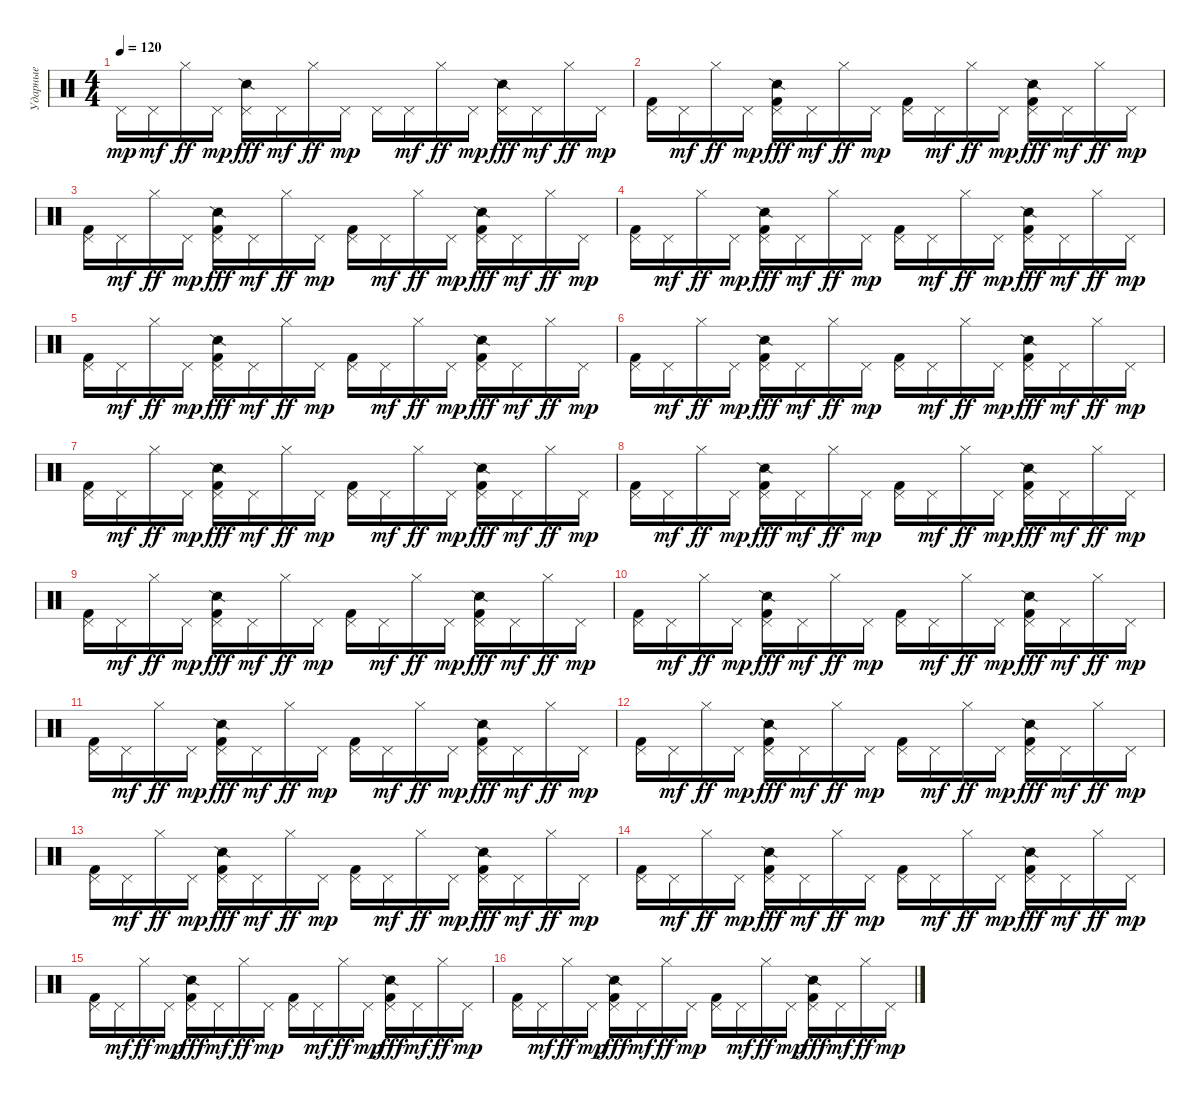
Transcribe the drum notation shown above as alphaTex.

\track ("Ударные" "Ударные") {instrument percussion}
\staff {score}
\articulation defaults
\ts (4 4)
\tempo 120
\clef neutral
\ks c "Pedal Hi-Hat (hit)".16{dy mp} "Pedal Hi-Hat (hit)".16{dy mf} "Hi-Hat (closed)".16{dy ff} "Pedal Hi-Hat (hit)".16{dy mp}
("Pedal Hi-Hat (hit)" "Snare (side stick) 2").16{dy fff} "Pedal Hi-Hat (hit)".16{dy mf} "Hi-Hat (closed)".16{dy ff} "Pedal Hi-Hat (hit)".16{dy mp} "Pedal Hi-Hat (hit)".16 "Pedal Hi-Hat (hit)".16{dy mf} "Hi-Hat (closed)".16{dy ff} "Pedal Hi-Hat (hit)".16{dy mp} ("Pedal Hi-Hat (hit)" "Snare (side stick) 2").16{dy fff} "Pedal Hi-Hat (hit)".16{dy mf} "Hi-Hat (closed)".16{dy ff} "Pedal Hi-Hat (hit)".16{dy mp} |
("Pedal Hi-Hat (hit)" "Kick (hit) 2").16 "Pedal Hi-Hat (hit)".16{dy mf} "Hi-Hat (closed)".16{dy ff} "Pedal Hi-Hat (hit)".16{dy mp} ("Pedal Hi-Hat (hit)" "Snare (side stick) 2" "Kick (hit) 2").16{dy fff} "Pedal Hi-Hat (hit)".16{dy mf} "Hi-Hat (closed)".16{dy ff} "Pedal Hi-Hat (hit)".16{dy mp} ("Pedal Hi-Hat (hit)" "Kick (hit) 2").16 "Pedal Hi-Hat (hit)".16{dy mf} "Hi-Hat (closed)".16{dy ff} "Pedal Hi-Hat (hit)".16{dy mp} ("Pedal Hi-Hat (hit)" "Snare (side stick) 2" "Kick (hit) 2").16{dy fff} "Pedal Hi-Hat (hit)".16{dy mf} "Hi-Hat (closed)".16{dy ff} "Pedal Hi-Hat (hit)".16{dy mp} |
("Pedal Hi-Hat (hit)" "Kick (hit) 2").16 "Pedal Hi-Hat (hit)".16{dy mf} "Hi-Hat (closed)".16{dy ff} "Pedal Hi-Hat (hit)".16{dy mp} ("Pedal Hi-Hat (hit)" "Snare (side stick) 2" "Kick (hit) 2").16{dy fff} "Pedal Hi-Hat (hit)".16{dy mf} "Hi-Hat (closed)".16{dy ff} "Pedal Hi-Hat (hit)".16{dy mp} ("Pedal Hi-Hat (hit)" "Kick (hit) 2").16 "Pedal Hi-Hat (hit)".16{dy mf} "Hi-Hat (closed)".16{dy ff} "Pedal Hi-Hat (hit)".16{dy mp} ("Pedal Hi-Hat (hit)" "Snare (side stick) 2" "Kick (hit) 2").16{dy fff} "Pedal Hi-Hat (hit)".16{dy mf} "Hi-Hat (closed)".16{dy ff} "Pedal Hi-Hat (hit)".16{dy mp} |
("Pedal Hi-Hat (hit)" "Kick (hit) 2").16 "Pedal Hi-Hat (hit)".16{dy mf} "Hi-Hat (closed)".16{dy ff} "Pedal Hi-Hat (hit)".16{dy mp} ("Pedal Hi-Hat (hit)" "Snare (side stick) 2" "Kick (hit) 2").16{dy fff} "Pedal Hi-Hat (hit)".16{dy mf} "Hi-Hat (closed)".16{dy ff} "Pedal Hi-Hat (hit)".16{dy mp} ("Pedal Hi-Hat (hit)" "Kick (hit) 2").16 "Pedal Hi-Hat (hit)".16{dy mf} "Hi-Hat (closed)".16{dy ff} "Pedal Hi-Hat (hit)".16{dy mp} ("Pedal Hi-Hat (hit)" "Snare (side stick) 2" "Kick (hit) 2").16{dy fff} "Pedal Hi-Hat (hit)".16{dy mf} "Hi-Hat (closed)".16{dy ff} "Pedal Hi-Hat (hit)".16{dy mp} |
("Pedal Hi-Hat (hit)" "Kick (hit) 2").16 "Pedal Hi-Hat (hit)".16{dy mf} "Hi-Hat (closed)".16{dy ff} "Pedal Hi-Hat (hit)".16{dy mp} ("Pedal Hi-Hat (hit)" "Snare (side stick) 2" "Kick (hit) 2").16{dy fff} "Pedal Hi-Hat (hit)".16{dy mf} "Hi-Hat (closed)".16{dy ff} "Pedal Hi-Hat (hit)".16{dy mp} ("Pedal Hi-Hat (hit)" "Kick (hit) 2").16 "Pedal Hi-Hat (hit)".16{dy mf} "Hi-Hat (closed)".16{dy ff} "Pedal Hi-Hat (hit)".16{dy mp} ("Pedal Hi-Hat (hit)" "Snare (side stick) 2" "Kick (hit) 2").16{dy fff} "Pedal Hi-Hat (hit)".16{dy mf} "Hi-Hat (closed)".16{dy ff} "Pedal Hi-Hat (hit)".16{dy mp} |
("Pedal Hi-Hat (hit)" "Kick (hit) 2").16 "Pedal Hi-Hat (hit)".16{dy mf} "Hi-Hat (closed)".16{dy ff} "Pedal Hi-Hat (hit)".16{dy mp} ("Pedal Hi-Hat (hit)" "Snare (side stick) 2" "Kick (hit) 2").16{dy fff} "Pedal Hi-Hat (hit)".16{dy mf} "Hi-Hat (closed)".16{dy ff} "Pedal Hi-Hat (hit)".16{dy mp} ("Pedal Hi-Hat (hit)" "Kick (hit) 2").16 "Pedal Hi-Hat (hit)".16{dy mf} "Hi-Hat (closed)".16{dy ff} "Pedal Hi-Hat (hit)".16{dy mp} ("Pedal Hi-Hat (hit)" "Snare (side stick) 2" "Kick (hit) 2").16{dy fff} "Pedal Hi-Hat (hit)".16{dy mf} "Hi-Hat (closed)".16{dy ff} "Pedal Hi-Hat (hit)".16{dy mp} |
("Pedal Hi-Hat (hit)" "Kick (hit) 2").16 "Pedal Hi-Hat (hit)".16{dy mf} "Hi-Hat (closed)".16{dy ff} "Pedal Hi-Hat (hit)".16{dy mp} ("Pedal Hi-Hat (hit)" "Snare (side stick) 2" "Kick (hit) 2").16{dy fff} "Pedal Hi-Hat (hit)".16{dy mf} "Hi-Hat (closed)".16{dy ff} "Pedal Hi-Hat (hit)".16{dy mp} ("Pedal Hi-Hat (hit)" "Kick (hit) 2").16 "Pedal Hi-Hat (hit)".16{dy mf} "Hi-Hat (closed)".16{dy ff} "Pedal Hi-Hat (hit)".16{dy mp} ("Pedal Hi-Hat (hit)" "Snare (side stick) 2" "Kick (hit) 2").16{dy fff} "Pedal Hi-Hat (hit)".16{dy mf} "Hi-Hat (closed)".16{dy ff} "Pedal Hi-Hat (hit)".16{dy mp} |
("Pedal Hi-Hat (hit)" "Kick (hit) 2").16 "Pedal Hi-Hat (hit)".16{dy mf} "Hi-Hat (closed)".16{dy ff} "Pedal Hi-Hat (hit)".16{dy mp} ("Pedal Hi-Hat (hit)" "Snare (side stick) 2" "Kick (hit) 2").16{dy fff} "Pedal Hi-Hat (hit)".16{dy mf} "Hi-Hat (closed)".16{dy ff} "Pedal Hi-Hat (hit)".16{dy mp} ("Pedal Hi-Hat (hit)" "Kick (hit) 2").16 "Pedal Hi-Hat (hit)".16{dy mf} "Hi-Hat (closed)".16{dy ff} "Pedal Hi-Hat (hit)".16{dy mp} ("Pedal Hi-Hat (hit)" "Snare (side stick) 2" "Kick (hit) 2").16{dy fff} "Pedal Hi-Hat (hit)".16{dy mf} "Hi-Hat (closed)".16{dy ff} "Pedal Hi-Hat (hit)".16{dy mp} |
("Pedal Hi-Hat (hit)" "Kick (hit) 2").16 "Pedal Hi-Hat (hit)".16{dy mf} "Hi-Hat (closed)".16{dy ff} "Pedal Hi-Hat (hit)".16{dy mp} ("Pedal Hi-Hat (hit)" "Snare (side stick) 2" "Kick (hit) 2").16{dy fff} "Pedal Hi-Hat (hit)".16{dy mf} "Hi-Hat (closed)".16{dy ff} "Pedal Hi-Hat (hit)".16{dy mp} ("Pedal Hi-Hat (hit)" "Kick (hit) 2").16 "Pedal Hi-Hat (hit)".16{dy mf} "Hi-Hat (closed)".16{dy ff} "Pedal Hi-Hat (hit)".16{dy mp} ("Pedal Hi-Hat (hit)" "Snare (side stick) 2" "Kick (hit) 2").16{dy fff} "Pedal Hi-Hat (hit)".16{dy mf} "Hi-Hat (closed)".16{dy ff} "Pedal Hi-Hat (hit)".16{dy mp} |
("Pedal Hi-Hat (hit)" "Kick (hit) 2").16 "Pedal Hi-Hat (hit)".16{dy mf} "Hi-Hat (closed)".16{dy ff} "Pedal Hi-Hat (hit)".16{dy mp} ("Pedal Hi-Hat (hit)" "Snare (side stick) 2" "Kick (hit) 2").16{dy fff} "Pedal Hi-Hat (hit)".16{dy mf} "Hi-Hat (closed)".16{dy ff} "Pedal Hi-Hat (hit)".16{dy mp} ("Pedal Hi-Hat (hit)" "Kick (hit) 2").16 "Pedal Hi-Hat (hit)".16{dy mf} "Hi-Hat (closed)".16{dy ff} "Pedal Hi-Hat (hit)".16{dy mp} ("Pedal Hi-Hat (hit)" "Snare (side stick) 2" "Kick (hit) 2").16{dy fff} "Pedal Hi-Hat (hit)".16{dy mf} "Hi-Hat (closed)".16{dy ff} "Pedal Hi-Hat (hit)".16{dy mp} |
("Pedal Hi-Hat (hit)" "Kick (hit) 2").16 "Pedal Hi-Hat (hit)".16{dy mf} "Hi-Hat (closed)".16{dy ff} "Pedal Hi-Hat (hit)".16{dy mp} ("Pedal Hi-Hat (hit)" "Snare (side stick) 2" "Kick (hit) 2").16{dy fff} "Pedal Hi-Hat (hit)".16{dy mf} "Hi-Hat (closed)".16{dy ff} "Pedal Hi-Hat (hit)".16{dy mp} ("Pedal Hi-Hat (hit)" "Kick (hit) 2").16 "Pedal Hi-Hat (hit)".16{dy mf} "Hi-Hat (closed)".16{dy ff} "Pedal Hi-Hat (hit)".16{dy mp} ("Pedal Hi-Hat (hit)" "Snare (side stick) 2" "Kick (hit) 2").16{dy fff} "Pedal Hi-Hat (hit)".16{dy mf} "Hi-Hat (closed)".16{dy ff} "Pedal Hi-Hat (hit)".16{dy mp} |
("Pedal Hi-Hat (hit)" "Kick (hit) 2").16 "Pedal Hi-Hat (hit)".16{dy mf} "Hi-Hat (closed)".16{dy ff} "Pedal Hi-Hat (hit)".16{dy mp} ("Pedal Hi-Hat (hit)" "Snare (side stick) 2" "Kick (hit) 2").16{dy fff} "Pedal Hi-Hat (hit)".16{dy mf} "Hi-Hat (closed)".16{dy ff} "Pedal Hi-Hat (hit)".16{dy mp} ("Pedal Hi-Hat (hit)" "Kick (hit) 2").16 "Pedal Hi-Hat (hit)".16{dy mf} "Hi-Hat (closed)".16{dy ff} "Pedal Hi-Hat (hit)".16{dy mp} ("Pedal Hi-Hat (hit)" "Snare (side stick) 2" "Kick (hit) 2").16{dy fff} "Pedal Hi-Hat (hit)".16{dy mf} "Hi-Hat (closed)".16{dy ff} "Pedal Hi-Hat (hit)".16{dy mp} |
("Pedal Hi-Hat (hit)" "Kick (hit) 2").16 "Pedal Hi-Hat (hit)".16{dy mf} "Hi-Hat (closed)".16{dy ff} "Pedal Hi-Hat (hit)".16{dy mp} ("Pedal Hi-Hat (hit)" "Snare (side stick) 2" "Kick (hit) 2").16{dy fff} "Pedal Hi-Hat (hit)".16{dy mf} "Hi-Hat (closed)".16{dy ff} "Pedal Hi-Hat (hit)".16{dy mp} ("Pedal Hi-Hat (hit)" "Kick (hit) 2").16 "Pedal Hi-Hat (hit)".16{dy mf} "Hi-Hat (closed)".16{dy ff} "Pedal Hi-Hat (hit)".16{dy mp} ("Pedal Hi-Hat (hit)" "Snare (side stick) 2" "Kick (hit) 2").16{dy fff} "Pedal Hi-Hat (hit)".16{dy mf} "Hi-Hat (closed)".16{dy ff} "Pedal Hi-Hat (hit)".16{dy mp} |
("Pedal Hi-Hat (hit)" "Kick (hit) 2").16 "Pedal Hi-Hat (hit)".16{dy mf} "Hi-Hat (closed)".16{dy ff} "Pedal Hi-Hat (hit)".16{dy mp} ("Pedal Hi-Hat (hit)" "Snare (side stick) 2" "Kick (hit) 2").16{dy fff} "Pedal Hi-Hat (hit)".16{dy mf} "Hi-Hat (closed)".16{dy ff} "Pedal Hi-Hat (hit)".16{dy mp} ("Pedal Hi-Hat (hit)" "Kick (hit) 2").16 "Pedal Hi-Hat (hit)".16{dy mf} "Hi-Hat (closed)".16{dy ff} "Pedal Hi-Hat (hit)".16{dy mp} ("Pedal Hi-Hat (hit)" "Snare (side stick) 2" "Kick (hit) 2").16{dy fff} "Pedal Hi-Hat (hit)".16{dy mf} "Hi-Hat (closed)".16{dy ff} "Pedal Hi-Hat (hit)".16{dy mp} |
("Pedal Hi-Hat (hit)" "Kick (hit) 2").16 "Pedal Hi-Hat (hit)".16{dy mf} "Hi-Hat (closed)".16{dy ff} "Pedal Hi-Hat (hit)".16{dy mp} ("Pedal Hi-Hat (hit)" "Snare (side stick) 2" "Kick (hit) 2").16{dy fff} "Pedal Hi-Hat (hit)".16{dy mf} "Hi-Hat (closed)".16{dy ff} "Pedal Hi-Hat (hit)".16{dy mp} ("Pedal Hi-Hat (hit)" "Kick (hit) 2").16 "Pedal Hi-Hat (hit)".16{dy mf} "Hi-Hat (closed)".16{dy ff} "Pedal Hi-Hat (hit)".16{dy mp} ("Pedal Hi-Hat (hit)" "Snare (side stick) 2" "Kick (hit) 2").16{dy fff} "Pedal Hi-Hat (hit)".16{dy mf} "Hi-Hat (closed)".16{dy ff} "Pedal Hi-Hat (hit)".16{dy mp} |
("Pedal Hi-Hat (hit)" "Kick (hit) 2").16 "Pedal Hi-Hat (hit)".16{dy mf} "Hi-Hat (closed)".16{dy ff} "Pedal Hi-Hat (hit)".16{dy mp} ("Pedal Hi-Hat (hit)" "Snare (side stick) 2" "Kick (hit) 2").16{dy fff} "Pedal Hi-Hat (hit)".16{dy mf} "Hi-Hat (closed)".16{dy ff} "Pedal Hi-Hat (hit)".16{dy mp} ("Pedal Hi-Hat (hit)" "Kick (hit) 2").16 "Pedal Hi-Hat (hit)".16{dy mf} "Hi-Hat (closed)".16{dy ff} "Pedal Hi-Hat (hit)".16{dy mp} ("Pedal Hi-Hat (hit)" "Snare (side stick) 2" "Kick (hit) 2").16{dy fff} "Pedal Hi-Hat (hit)".16{dy mf} "Hi-Hat (closed)".16{dy ff} "Pedal Hi-Hat (hit)".16{dy mp}
